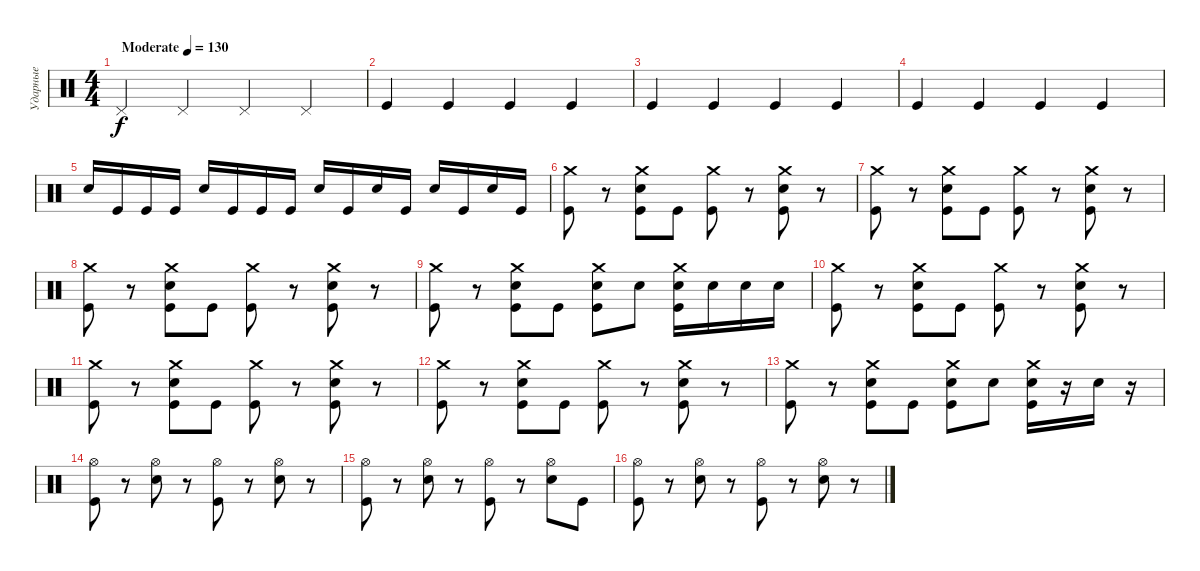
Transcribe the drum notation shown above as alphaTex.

\track ("Ударные" "Ударные") {instrument percussion}
\staff {score}
\articulation defaults
\ts (4 4)
\tempo (130 "Moderate")
\clef neutral
\ks c "Pedal Hi-Hat (hit)".4{dy f} "Pedal Hi-Hat (hit)".4 "Pedal Hi-Hat (hit)".4 "Pedal Hi-Hat (hit)".4
|
"Kick (hit)".4 "Kick (hit)".4 "Kick (hit)".4 "Kick (hit)".4 |
"Kick (hit)".4 "Kick (hit)".4 "Kick (hit)".4 "Kick (hit)".4 |
"Kick (hit)".4 "Kick (hit)".4 "Kick (hit)".4 "Kick (hit)".4 |
"Electric Snare (hit)".16 "Kick (hit)".16 "Kick (hit)".16 "Kick (hit)".16 "Electric Snare (hit)".16 "Kick (hit)".16 "Kick (hit)".16 "Kick (hit)".16 "Electric Snare (hit)".16 "Kick (hit)".16 "Electric Snare (hit)".16 "Kick (hit)".16 "Electric Snare (hit)".16 "Kick (hit)".16 "Electric Snare (hit)".16 "Kick (hit)".16 |
("Crash medium (hit)" "Kick (hit)").8 r.8 ("Crash medium (hit)" "Electric Snare (hit)" "Kick (hit)").8 "Kick (hit)".8 ("Crash medium (hit)" "Kick (hit)").8 r.8 ("Crash medium (hit)" "Electric Snare (hit)" "Kick (hit)").8 r.8 |
("Crash medium (hit)" "Kick (hit)").8 r.8 ("Crash medium (hit)" "Electric Snare (hit)" "Kick (hit)").8 "Kick (hit)".8 ("Crash medium (hit)" "Kick (hit)").8 r.8 ("Crash medium (hit)" "Electric Snare (hit)" "Kick (hit)").8 r.8 |
("Crash medium (hit)" "Kick (hit)").8 r.8 ("Crash medium (hit)" "Electric Snare (hit)" "Kick (hit)").8 "Kick (hit)".8 ("Crash medium (hit)" "Kick (hit)").8 r.8 ("Crash medium (hit)" "Electric Snare (hit)" "Kick (hit)").8 r.8 |
("Crash medium (hit)" "Kick (hit)").8 r.8 ("Crash medium (hit)" "Electric Snare (hit)" "Kick (hit)").8 "Kick (hit)".8 ("Crash medium (hit)" "Electric Snare (hit)" "Kick (hit)").8 "Electric Snare (hit)".8 ("Crash medium (hit)" "Electric Snare (hit)" "Kick (hit)").16 "Electric Snare (hit)".16 "Electric Snare (hit)".16 "Electric Snare (hit)".16 |
("Crash medium (hit)" "Kick (hit)").8 r.8 ("Crash medium (hit)" "Electric Snare (hit)" "Kick (hit)").8 "Kick (hit)".8 ("Crash medium (hit)" "Kick (hit)").8 r.8 ("Crash medium (hit)" "Electric Snare (hit)" "Kick (hit)").8 r.8 |
("Crash medium (hit)" "Kick (hit)").8 r.8 ("Crash medium (hit)" "Electric Snare (hit)" "Kick (hit)").8 "Kick (hit)".8 ("Crash medium (hit)" "Kick (hit)").8 r.8 ("Crash medium (hit)" "Electric Snare (hit)" "Kick (hit)").8 r.8 |
("Crash medium (hit)" "Kick (hit)").8 r.8 ("Crash medium (hit)" "Electric Snare (hit)" "Kick (hit)").8 "Kick (hit)".8 ("Crash medium (hit)" "Kick (hit)").8 r.8 ("Crash medium (hit)" "Electric Snare (hit)" "Kick (hit)").8 r.8 |
("Crash medium (hit)" "Kick (hit)").8 r.8 ("Crash medium (hit)" "Electric Snare (hit)" "Kick (hit)").8 "Kick (hit)".8 ("Crash medium (hit)" "Electric Snare (hit)" "Kick (hit)").8 "Electric Snare (hit)".8 ("Crash medium (hit)" "Electric Snare (hit)" "Kick (hit)").16 r.16 "Electric Snare (hit)".16 r.16 |
("Hi-Hat (open)" "Kick (hit)").8 r.8 ("Hi-Hat (open)" "Electric Snare (hit)").8 r.8 ("Hi-Hat (open)" "Kick (hit)").8 r.8 ("Hi-Hat (open)" "Electric Snare (hit)").8 r.8 |
("Hi-Hat (open)" "Kick (hit)").8 r.8 ("Hi-Hat (open)" "Electric Snare (hit)").8 r.8 ("Hi-Hat (open)" "Kick (hit)").8 r.8 ("Hi-Hat (open)" "Electric Snare (hit)").8 "Kick (hit)".8 |
("Hi-Hat (open)" "Kick (hit)").8 r.8 ("Hi-Hat (open)" "Electric Snare (hit)").8 r.8 ("Hi-Hat (open)" "Kick (hit)").8 r.8 ("Hi-Hat (open)" "Electric Snare (hit)").8 r.8
